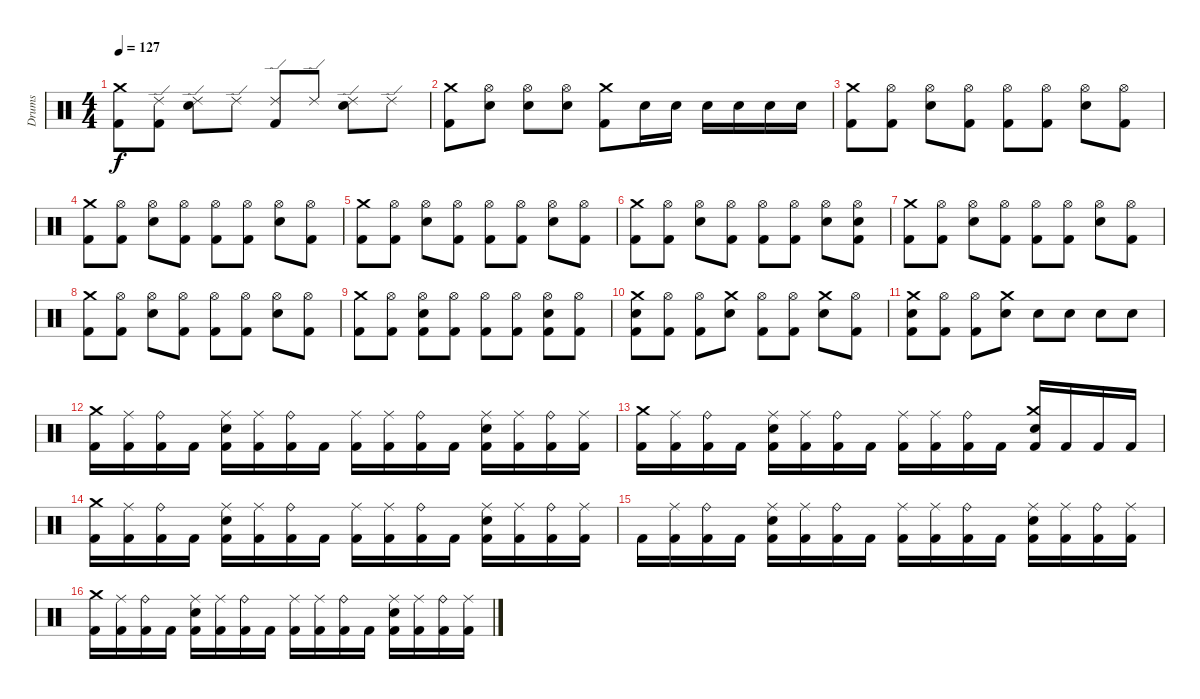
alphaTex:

\track ("Drums" "Drums") {instrument percussion}
\staff {score}
\articulation defaults
\ts (4 4)
\tempo 127
\clef neutral
\ks c
("Kick (hit) 2" "Crash medium (hit)").8{dy f} ("Kick (hit) 2" "Ride (edge) 2").8 ("Electric Snare (hit)" "Ride (edge) 2").8 "Ride (edge) 2".8 ("Kick (hit) 2" "Ride (edge) 2").8 "Ride (edge) 2".8 ("Electric Snare (hit)" "Ride (edge) 2").8 "Ride (edge) 2".8 |
("Kick (hit) 2" "Crash medium (hit)").8 ("Electric Snare (hit)" "Hi-Hat (open)").8 ("Electric Snare (hit)" "Hi-Hat (open)").8 ("Electric Snare (hit)" "Hi-Hat (open)").8 ("Kick (hit) 2" "Crash medium (hit)").8 "Electric Snare (hit)".16 "Electric Snare (hit)".16 "Electric Snare (hit)".16 "Electric Snare (hit)".16 "Electric Snare (hit)".16 "Electric Snare (hit)".16 |
("Kick (hit) 2" "Crash medium (hit)").8 ("Kick (hit) 2" "Hi-Hat (open)").8 ("Electric Snare (hit)" "Hi-Hat (open)").8 ("Kick (hit) 2" "Hi-Hat (open)").8 ("Kick (hit) 2" "Hi-Hat (open)").8 ("Kick (hit) 2" "Hi-Hat (open)").8 ("Electric Snare (hit)" "Hi-Hat (open)").8 ("Kick (hit) 2" "Hi-Hat (open)").8 |
("Kick (hit) 2" "Crash medium (hit)").8 ("Kick (hit) 2" "Hi-Hat (open)").8 ("Electric Snare (hit)" "Hi-Hat (open)").8 ("Kick (hit) 2" "Hi-Hat (open)").8 ("Kick (hit) 2" "Hi-Hat (open)").8 ("Kick (hit) 2" "Hi-Hat (open)").8 ("Electric Snare (hit)" "Hi-Hat (open)").8 ("Kick (hit) 2" "Hi-Hat (open)").8 |
("Kick (hit) 2" "Crash medium (hit)").8 ("Kick (hit) 2" "Hi-Hat (open)").8 ("Electric Snare (hit)" "Hi-Hat (open)").8 ("Kick (hit) 2" "Hi-Hat (open)").8 ("Kick (hit) 2" "Hi-Hat (open)").8 ("Kick (hit) 2" "Hi-Hat (open)").8 ("Electric Snare (hit)" "Hi-Hat (open)").8 ("Kick (hit) 2" "Hi-Hat (open)").8 |
("Kick (hit) 2" "Crash medium (hit)").8 ("Kick (hit) 2" "Hi-Hat (open)").8 ("Electric Snare (hit)" "Hi-Hat (open)").8 ("Kick (hit) 2" "Hi-Hat (open)").8 ("Kick (hit) 2" "Hi-Hat (open)").8 ("Kick (hit) 2" "Hi-Hat (open)").8 ("Electric Snare (hit)" "Hi-Hat (open)").8 ("Kick (hit) 2" "Electric Snare (hit)" "Hi-Hat (open)").8 |
("Kick (hit) 2" "Crash medium (hit)").8 ("Kick (hit) 2" "Hi-Hat (open)").8 ("Electric Snare (hit)" "Hi-Hat (open)").8 ("Kick (hit) 2" "Hi-Hat (open)").8 ("Kick (hit) 2" "Hi-Hat (open)").8 ("Kick (hit) 2" "Hi-Hat (open)").8 ("Electric Snare (hit)" "Hi-Hat (open)").8 ("Kick (hit) 2" "Hi-Hat (open)").8 |
("Kick (hit) 2" "Crash medium (hit)").8 ("Kick (hit) 2" "Hi-Hat (open)").8 ("Electric Snare (hit)" "Hi-Hat (open)").8 ("Kick (hit) 2" "Hi-Hat (open)").8 ("Kick (hit) 2" "Hi-Hat (open)").8 ("Kick (hit) 2" "Hi-Hat (open)").8 ("Electric Snare (hit)" "Hi-Hat (open)").8 ("Kick (hit) 2" "Hi-Hat (open)").8 |
("Kick (hit) 2" "Crash medium (hit)").8 ("Kick (hit) 2" "Hi-Hat (open)").8 ("Kick (hit) 2" "Electric Snare (hit)" "Hi-Hat (open)").8 ("Kick (hit) 2" "Hi-Hat (open)").8 ("Kick (hit) 2" "Hi-Hat (open)").8 ("Kick (hit) 2" "Hi-Hat (open)").8 ("Kick (hit) 2" "Electric Snare (hit)" "Hi-Hat (open)").8 ("Kick (hit) 2" "Hi-Hat (open)").8 |
("Kick (hit) 2" "Electric Snare (hit)" "Crash medium (hit)").8 ("Kick (hit) 2" "Hi-Hat (open)").8 ("Kick (hit) 2" "Hi-Hat (open)").8 ("Electric Snare (hit)" "Crash medium (hit)").8 ("Kick (hit) 2" "Hi-Hat (open)").8 ("Kick (hit) 2" "Hi-Hat (open)").8 ("Electric Snare (hit)" "Crash medium (hit)").8 ("Kick (hit) 2" "Hi-Hat (open)").8 |
("Kick (hit) 2" "Electric Snare (hit)" "Crash medium (hit)").8 ("Kick (hit) 2" "Hi-Hat (open)").8 ("Kick (hit) 2" "Hi-Hat (open)").8 ("Electric Snare (hit)" "Crash medium (hit)").8 "Electric Snare (hit)".8 "Electric Snare (hit)".8 "Electric Snare (hit)".8 "Electric Snare (hit)".8 |
("Kick (hit) 2" "Crash medium (hit)").16 ("Kick (hit) 2" "Ride (middle)").16 ("Kick (hit) 2" "Ride (bell)").16 "Kick (hit) 2".16 ("Kick (hit) 2" "Electric Snare (hit)" "Ride (middle)").16 ("Kick (hit) 2" "Ride (middle)").16 ("Kick (hit) 2" "Ride (bell)").16 "Kick (hit) 2".16 ("Kick (hit) 2" "Ride (middle)").16 ("Kick (hit) 2" "Ride (middle)").16 ("Kick (hit) 2" "Ride (bell)").16 "Kick (hit) 2".16 ("Kick (hit) 2" "Electric Snare (hit)" "Ride (middle)").16 ("Kick (hit) 2" "Ride (middle)").16 ("Kick (hit) 2" "Ride (bell)").16 ("Kick (hit) 2" "Ride (middle)").16 |
("Kick (hit) 2" "Crash medium (hit)").16 ("Kick (hit) 2" "Ride (middle)").16 ("Kick (hit) 2" "Ride (bell)").16 "Kick (hit) 2".16 ("Kick (hit) 2" "Electric Snare (hit)" "Ride (middle)").16 ("Kick (hit) 2" "Ride (middle)").16 ("Kick (hit) 2" "Ride (bell)").16 "Kick (hit) 2".16 ("Kick (hit) 2" "Ride (middle)").16 ("Kick (hit) 2" "Ride (middle)").16 ("Kick (hit) 2" "Ride (bell)").16 "Kick (hit) 2".16 ("Kick (hit) 2" "Electric Snare (hit)" "Crash medium (hit)").16 "Kick (hit) 2".16 "Kick (hit) 2".16 "Kick (hit) 2".16 |
("Kick (hit) 2" "Crash medium (hit)").16 ("Kick (hit) 2" "Ride (middle)").16 ("Kick (hit) 2" "Ride (bell)").16 "Kick (hit) 2".16 ("Kick (hit) 2" "Electric Snare (hit)" "Ride (middle)").16 ("Kick (hit) 2" "Ride (middle)").16 ("Kick (hit) 2" "Ride (bell)").16 "Kick (hit) 2".16 ("Kick (hit) 2" "Ride (middle)").16 ("Kick (hit) 2" "Ride (middle)").16 ("Kick (hit) 2" "Ride (bell)").16 "Kick (hit) 2".16 ("Kick (hit) 2" "Electric Snare (hit)" "Ride (middle)").16 ("Kick (hit) 2" "Ride (middle)").16 ("Kick (hit) 2" "Ride (bell)").16 ("Kick (hit) 2" "Ride (middle)").16 |
"Kick (hit) 2".16 ("Kick (hit) 2" "Ride (middle)").16 ("Kick (hit) 2" "Ride (bell)").16 "Kick (hit) 2".16 ("Kick (hit) 2" "Electric Snare (hit)" "Ride (middle)").16 ("Kick (hit) 2" "Ride (middle)").16 ("Kick (hit) 2" "Ride (bell)").16 "Kick (hit) 2".16 ("Kick (hit) 2" "Ride (middle)").16 ("Kick (hit) 2" "Ride (middle)").16 ("Kick (hit) 2" "Ride (bell)").16 "Kick (hit) 2".16 ("Kick (hit) 2" "Electric Snare (hit)" "Ride (middle)").16 ("Kick (hit) 2" "Ride (middle)").16 ("Kick (hit) 2" "Ride (bell)").16 ("Kick (hit) 2" "Ride (middle)").16 |
("Kick (hit) 2" "Crash medium (hit)").16 ("Kick (hit) 2" "Ride (middle)").16 ("Kick (hit) 2" "Ride (bell)").16 "Kick (hit) 2".16 ("Kick (hit) 2" "Electric Snare (hit)" "Ride (middle)").16 ("Kick (hit) 2" "Ride (middle)").16 ("Kick (hit) 2" "Ride (bell)").16 "Kick (hit) 2".16 ("Kick (hit) 2" "Ride (middle)").16 ("Kick (hit) 2" "Ride (middle)").16 ("Kick (hit) 2" "Ride (bell)").16 "Kick (hit) 2".16 ("Kick (hit) 2" "Electric Snare (hit)" "Ride (middle)").16 ("Kick (hit) 2" "Ride (middle)").16 ("Kick (hit) 2" "Ride (bell)").16 ("Kick (hit) 2" "Ride (middle)").16
